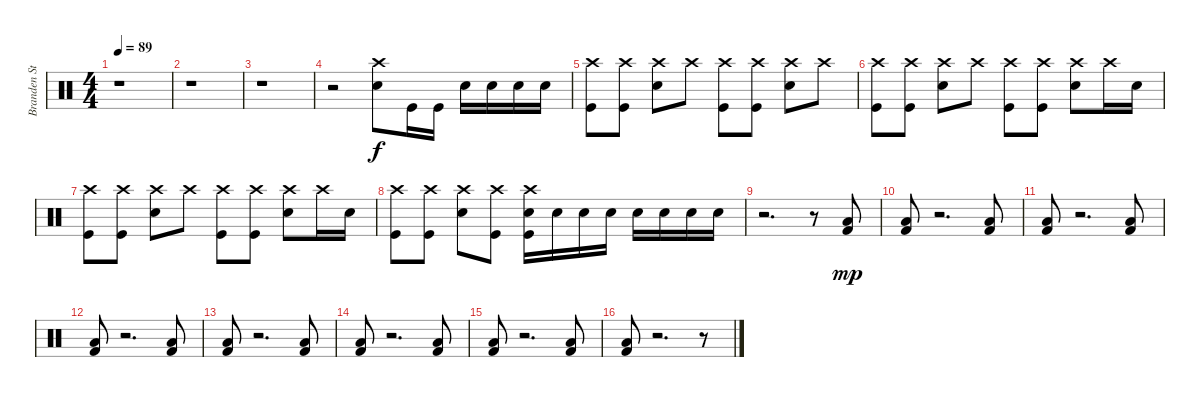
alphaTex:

\track ("Branden Steineckert - Drums" "Branden St") {instrument percussion}
\staff {score}
\articulation defaults
\ts (4 4)
\tempo 89
\clef neutral
\ks c
r.1{dy f} |
r.1 |
r.1 |
r.2 ("Crash high (hit)" "Electric Snare (hit)").8 "Kick (hit)".16 "Kick (hit)".16 "Electric Snare (hit)".16 "Electric Snare (hit)".16 "Electric Snare (hit)".16 "Electric Snare (hit)".16 |
("Crash high (hit)" "Kick (hit)").8 ("Crash high (hit)" "Kick (hit)").8 ("Crash high (hit)" "Electric Snare (hit)").8 "Crash high (hit)".8 ("Crash high (hit)" "Kick (hit)").8 ("Crash high (hit)" "Kick (hit)").8 ("Crash high (hit)" "Electric Snare (hit)").8 "Crash high (hit)".8 |
("Crash high (hit)" "Kick (hit)").8 ("Crash high (hit)" "Kick (hit)").8 ("Crash high (hit)" "Electric Snare (hit)").8 "Crash high (hit)".8 ("Crash high (hit)" "Kick (hit)").8 ("Crash high (hit)" "Kick (hit)").8 ("Crash high (hit)" "Electric Snare (hit)").8 "Crash high (hit)".16 "Electric Snare (hit)".16 |
("Crash high (hit)" "Kick (hit)").8 ("Crash high (hit)" "Kick (hit)").8 ("Crash high (hit)" "Electric Snare (hit)").8 "Crash high (hit)".8 ("Crash high (hit)" "Kick (hit)").8 ("Crash high (hit)" "Kick (hit)").8 ("Crash high (hit)" "Electric Snare (hit)").8 "Crash high (hit)".16 "Electric Snare (hit)".16 |
("Crash high (hit)" "Kick (hit)").8 ("Crash high (hit)" "Kick (hit)").8 ("Crash high (hit)" "Electric Snare (hit)").8 ("Crash high (hit)" "Kick (hit)").8 ("Crash high (hit)" "Electric Snare (hit)" "Kick (hit)").16 "Electric Snare (hit)".16 "Electric Snare (hit)".16 "Electric Snare (hit)".16 "Electric Snare (hit)".16 "Electric Snare (hit)".16 "Electric Snare (hit)".16 "Electric Snare (hit)".16 |
r.2{d} r.8 ("Low Floor Tom (hit)" "Kick (hit) 2").8{dy mp} |
("Low Floor Tom (hit)" "Kick (hit) 2").8 r.2{d} ("Low Floor Tom (hit)" "Kick (hit) 2").8 |
("Low Floor Tom (hit)" "Kick (hit) 2").8 r.2{d} ("Low Floor Tom (hit)" "Kick (hit) 2").8 |
("Low Floor Tom (hit)" "Kick (hit) 2").8 r.2{d} ("Low Floor Tom (hit)" "Kick (hit) 2").8 |
("Low Floor Tom (hit)" "Kick (hit) 2").8 r.2{d} ("Low Floor Tom (hit)" "Kick (hit) 2").8 |
("Low Floor Tom (hit)" "Kick (hit) 2").8 r.2{d} ("Low Floor Tom (hit)" "Kick (hit) 2").8 |
("Low Floor Tom (hit)" "Kick (hit) 2").8 r.2{d} ("Low Floor Tom (hit)" "Kick (hit) 2").8 |
("Low Floor Tom (hit)" "Kick (hit) 2").8 r.2{d} r.8
